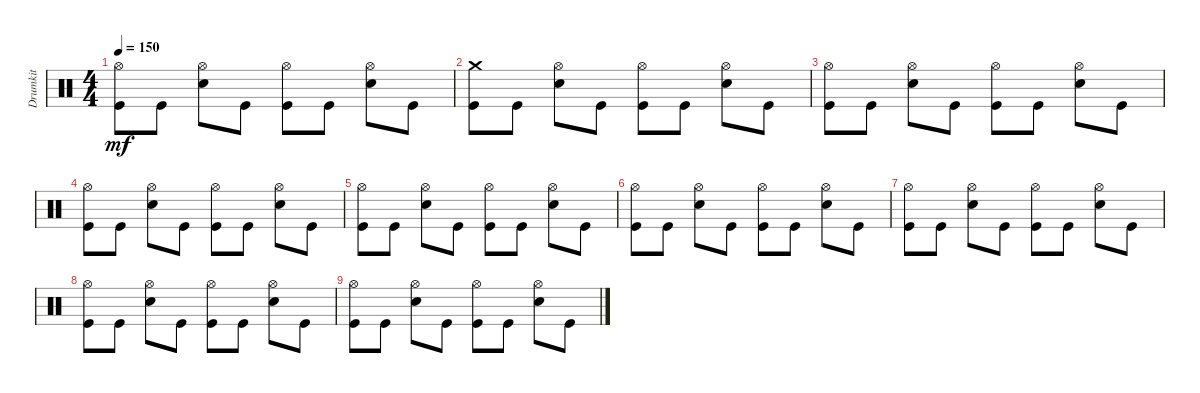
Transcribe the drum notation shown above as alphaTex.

\track ("Drumkit" "Drumkit") {instrument percussion}
\staff {score}
\articulation defaults
\ts (4 4)
\tempo 150
\clef neutral
\ks c
("Kick (hit)" "Hi-Hat (open)").8{dy mf} "Kick (hit)".8 ("Snare (hit) 2" "Hi-Hat (open)").8 "Kick (hit)".8 ("Kick (hit)" "Hi-Hat (open)").8 "Kick (hit)".8 ("Snare (hit) 2" "Hi-Hat (open)").8 "Kick (hit)".8 |
("Kick (hit)" "Crash medium (hit)").8 "Kick (hit)".8 ("Snare (hit) 2" "Hi-Hat (open)").8 "Kick (hit)".8 ("Kick (hit)" "Hi-Hat (open)").8 "Kick (hit)".8 ("Snare (hit) 2" "Hi-Hat (open)").8 "Kick (hit)".8 |
("Kick (hit)" "Hi-Hat (open)").8 "Kick (hit)".8 ("Snare (hit) 2" "Hi-Hat (open)").8 "Kick (hit)".8 ("Kick (hit)" "Hi-Hat (open)").8 "Kick (hit)".8 ("Snare (hit) 2" "Hi-Hat (open)").8 "Kick (hit)".8 |
("Kick (hit)" "Hi-Hat (open)").8 "Kick (hit)".8 ("Snare (hit) 2" "Hi-Hat (open)").8 "Kick (hit)".8 ("Kick (hit)" "Hi-Hat (open)").8 "Kick (hit)".8 ("Snare (hit) 2" "Hi-Hat (open)").8 "Kick (hit)".8 |
("Kick (hit)" "Hi-Hat (open)").8 "Kick (hit)".8 ("Snare (hit) 2" "Hi-Hat (open)").8 "Kick (hit)".8 ("Kick (hit)" "Hi-Hat (open)").8 "Kick (hit)".8 ("Snare (hit) 2" "Hi-Hat (open)").8 "Kick (hit)".8 |
("Kick (hit)" "Hi-Hat (open)").8 "Kick (hit)".8 ("Snare (hit) 2" "Hi-Hat (open)").8 "Kick (hit)".8 ("Kick (hit)" "Hi-Hat (open)").8 "Kick (hit)".8 ("Snare (hit) 2" "Hi-Hat (open)").8 "Kick (hit)".8 |
("Kick (hit)" "Hi-Hat (open)").8 "Kick (hit)".8 ("Snare (hit) 2" "Hi-Hat (open)").8 "Kick (hit)".8 ("Kick (hit)" "Hi-Hat (open)").8 "Kick (hit)".8 ("Snare (hit) 2" "Hi-Hat (open)").8 "Kick (hit)".8 |
("Kick (hit)" "Hi-Hat (open)").8 "Kick (hit)".8 ("Snare (hit) 2" "Hi-Hat (open)").8 "Kick (hit)".8 ("Kick (hit)" "Hi-Hat (open)").8 "Kick (hit)".8 ("Snare (hit) 2" "Hi-Hat (open)").8 "Kick (hit)".8 |
("Kick (hit)" "Hi-Hat (open)").8 "Kick (hit)".8 ("Snare (hit) 2" "Hi-Hat (open)").8 "Kick (hit)".8 ("Kick (hit)" "Hi-Hat (open)").8 "Kick (hit)".8 ("Snare (hit) 2" "Hi-Hat (open)").8 "Kick (hit)".8
